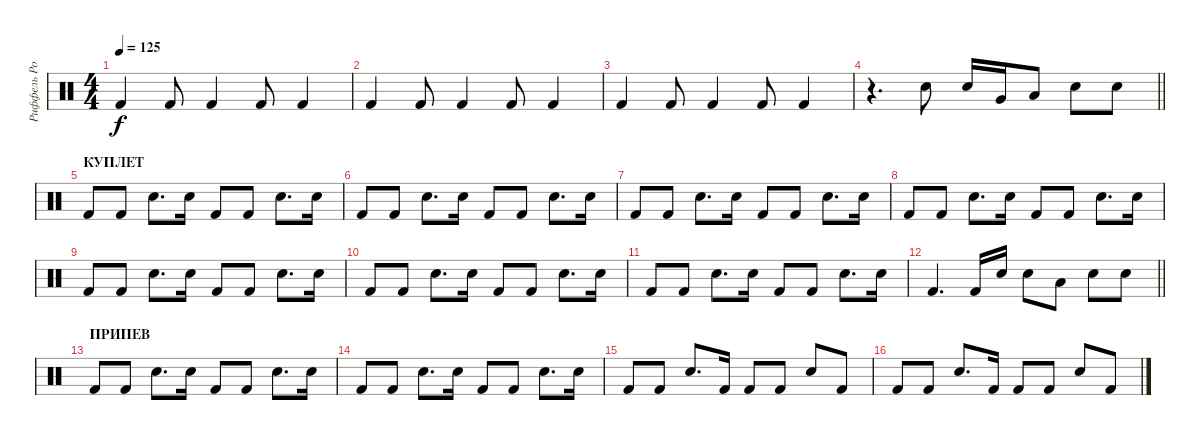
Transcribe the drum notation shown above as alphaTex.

\track ("Риффель Роман(главные)" "Риффель Ро") {instrument percussion}
\staff {score}
\articulation defaults
\ts (4 4)
\tempo 125
\clef neutral
\ks c "Kick (hit) 2".4{dy f} "Kick (hit) 2".8 "Kick (hit) 2".4 "Kick (hit) 2".8 "Kick (hit) 2".4
|
"Kick (hit) 2".4 "Kick (hit) 2".8 "Kick (hit) 2".4 "Kick (hit) 2".8 "Kick (hit) 2".4 |
"Kick (hit) 2".4 "Kick (hit) 2".8 "Kick (hit) 2".4 "Kick (hit) 2".8 "Kick (hit) 2".4 |
\barLineRight lightlight
r.4{d} "Electric Snare (hit)".8 "Electric Snare (hit)".16 "Very Low Tom (hit)".16 "Low Floor Tom (hit)".8 "Electric Snare (hit)".8 "Electric Snare (hit)".8 |
\section ("" "КУПЛЕТ")
"Kick (hit) 2".8 "Kick (hit) 2".8 "Electric Snare (hit)".8{d} "Electric Snare (hit)".16 "Kick (hit) 2".8 "Kick (hit) 2".8 "Electric Snare (hit)".8{d} "Electric Snare (hit)".16 |
"Kick (hit) 2".8 "Kick (hit) 2".8 "Electric Snare (hit)".8{d} "Electric Snare (hit)".16 "Kick (hit) 2".8 "Kick (hit) 2".8 "Electric Snare (hit)".8{d} "Electric Snare (hit)".16 |
"Kick (hit) 2".8 "Kick (hit) 2".8 "Electric Snare (hit)".8{d} "Electric Snare (hit)".16 "Kick (hit) 2".8 "Kick (hit) 2".8 "Electric Snare (hit)".8{d} "Electric Snare (hit)".16 |
"Kick (hit) 2".8 "Kick (hit) 2".8 "Electric Snare (hit)".8{d} "Electric Snare (hit)".16 "Kick (hit) 2".8 "Kick (hit) 2".8 "Electric Snare (hit)".8{d} "Electric Snare (hit)".16 |
"Kick (hit) 2".8 "Kick (hit) 2".8 "Electric Snare (hit)".8{d} "Electric Snare (hit)".16 "Kick (hit) 2".8 "Kick (hit) 2".8 "Electric Snare (hit)".8{d} "Electric Snare (hit)".16 |
"Kick (hit) 2".8 "Kick (hit) 2".8 "Electric Snare (hit)".8{d} "Electric Snare (hit)".16 "Kick (hit) 2".8 "Kick (hit) 2".8 "Electric Snare (hit)".8{d} "Electric Snare (hit)".16 |
"Kick (hit) 2".8 "Kick (hit) 2".8 "Electric Snare (hit)".8{d} "Electric Snare (hit)".16 "Kick (hit) 2".8 "Kick (hit) 2".8 "Electric Snare (hit)".8{d} "Electric Snare (hit)".16 |
\barLineRight lightlight "Kick (hit) 2".4{d} "Kick (hit) 2".16 "Electric Snare (hit)".16 "Electric Snare (hit)".8 "Low Tom (hit)".8 "Electric Snare (hit)".8 "Electric Snare (hit)".8
|
\section ("" "ПРИПЕВ")
"Kick (hit) 2".8 "Kick (hit) 2".8 "Electric Snare (hit)".8{d} "Electric Snare (hit)".16 "Kick (hit) 2".8 "Kick (hit) 2".8 "Electric Snare (hit)".8{d} "Electric Snare (hit)".16 |
"Kick (hit) 2".8 "Kick (hit) 2".8 "Electric Snare (hit)".8{d} "Electric Snare (hit)".16 "Kick (hit) 2".8 "Kick (hit) 2".8 "Electric Snare (hit)".8{d} "Electric Snare (hit)".16 |
"Kick (hit) 2".8 "Kick (hit) 2".8 "Electric Snare (hit)".8{d} "Kick (hit) 2".16 "Kick (hit) 2".8 "Kick (hit) 2".8 "Electric Snare (hit)".8 "Kick (hit) 2".8 |
"Kick (hit) 2".8 "Kick (hit) 2".8 "Electric Snare (hit)".8{d} "Kick (hit) 2".16 "Kick (hit) 2".8 "Kick (hit) 2".8 "Electric Snare (hit)".8 "Kick (hit) 2".8
